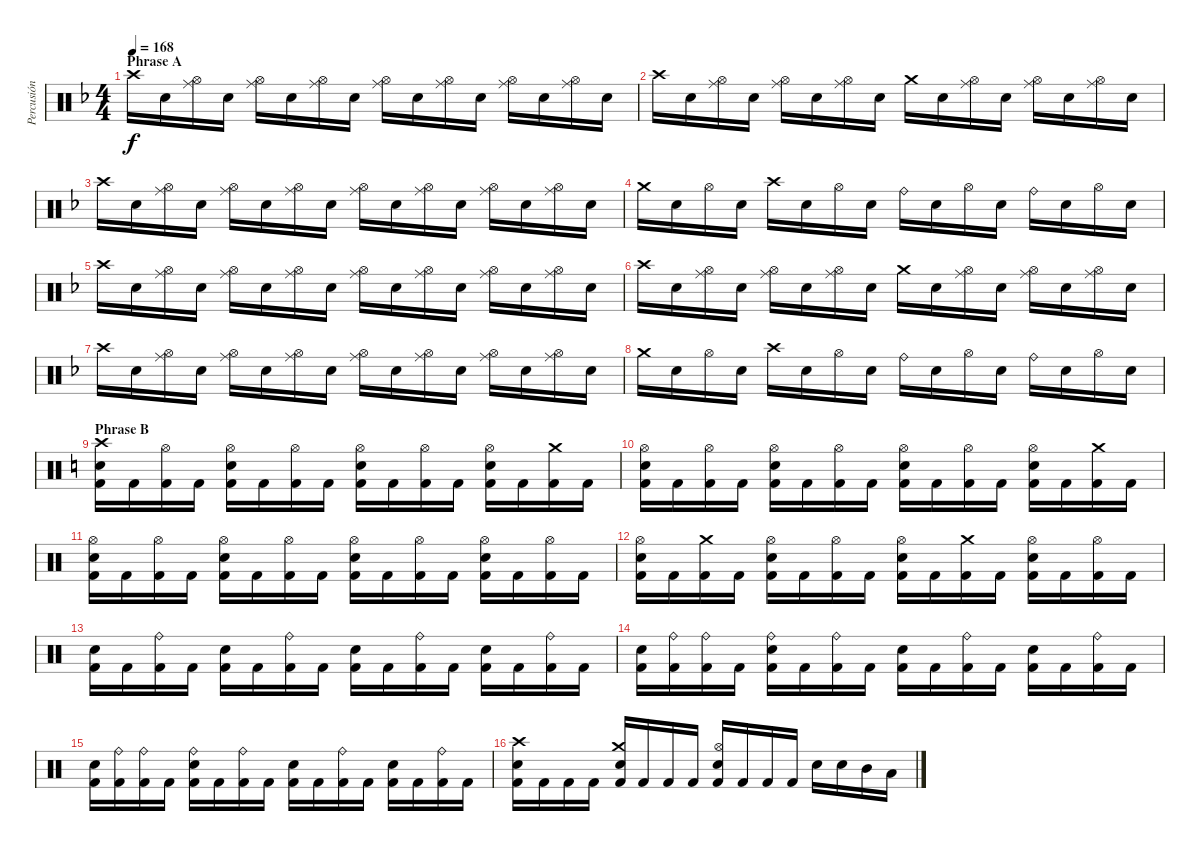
\track ("Percusión" "Percusión") {instrument percussion}
\staff {score}
\articulation defaults
\ts (4 4)
\section ("" "Phrase A")
\tempo 168
\clef neutral
\ks f "Crash high (hit)".16{dy f} "Electric Snare (hit)".16
("Ride (middle)" "Hi-Hat (open)").16 "Electric Snare (hit)".16 ("Ride (middle)" "Hi-Hat (open)").16 "Electric Snare (hit)".16 ("Ride (middle)" "Hi-Hat (open)").16 "Electric Snare (hit)".16 ("Ride (middle)" "Hi-Hat (open)").16 "Electric Snare (hit)".16 ("Ride (middle)" "Hi-Hat (open)").16 "Electric Snare (hit)".16 ("Ride (middle)" "Hi-Hat (open)").16 "Electric Snare (hit)".16 ("Ride (middle)" "Hi-Hat (open)").16 "Electric Snare (hit)".16 |
"Crash high (hit)".16 "Electric Snare (hit)".16 ("Ride (middle)" "Hi-Hat (open)").16 "Electric Snare (hit)".16 ("Ride (middle)" "Hi-Hat (open)").16 "Electric Snare (hit)".16 ("Ride (middle)" "Hi-Hat (open)").16 "Electric Snare (hit)".16 "Crash medium (hit)".16 "Electric Snare (hit)".16 ("Ride (middle)" "Hi-Hat (open)").16 "Electric Snare (hit)".16 ("Ride (middle)" "Hi-Hat (open)").16 "Electric Snare (hit)".16 ("Ride (middle)" "Hi-Hat (open)").16 "Electric Snare (hit)".16 |
"Crash high (hit)".16 "Electric Snare (hit)".16 ("Ride (middle)" "Hi-Hat (open)").16 "Electric Snare (hit)".16 ("Ride (middle)" "Hi-Hat (open)").16 "Electric Snare (hit)".16 ("Ride (middle)" "Hi-Hat (open)").16 "Electric Snare (hit)".16 ("Ride (middle)" "Hi-Hat (open)").16 "Electric Snare (hit)".16 ("Ride (middle)" "Hi-Hat (open)").16 "Electric Snare (hit)".16 ("Ride (middle)" "Hi-Hat (open)").16 "Electric Snare (hit)".16 ("Ride (middle)" "Hi-Hat (open)").16 "Electric Snare (hit)".16 |
"Crash medium (hit)".16 "Electric Snare (hit)".16 "Hi-Hat (open)".16 "Electric Snare (hit)".16 "Crash high (hit)".16 "Electric Snare (hit)".16 "Hi-Hat (open)".16 "Electric Snare (hit)".16 "Ride (bell)".16 "Electric Snare (hit)".16 "Hi-Hat (open)".16 "Electric Snare (hit)".16 "Ride (bell)".16 "Electric Snare (hit)".16 "Hi-Hat (open)".16 "Electric Snare (hit)".16 |
"Crash high (hit)".16 "Electric Snare (hit)".16 ("Ride (middle)" "Hi-Hat (open)").16 "Electric Snare (hit)".16 ("Ride (middle)" "Hi-Hat (open)").16 "Electric Snare (hit)".16 ("Ride (middle)" "Hi-Hat (open)").16 "Electric Snare (hit)".16 ("Ride (middle)" "Hi-Hat (open)").16 "Electric Snare (hit)".16 ("Ride (middle)" "Hi-Hat (open)").16 "Electric Snare (hit)".16 ("Ride (middle)" "Hi-Hat (open)").16 "Electric Snare (hit)".16 ("Ride (middle)" "Hi-Hat (open)").16 "Electric Snare (hit)".16 |
"Crash high (hit)".16 "Electric Snare (hit)".16 ("Ride (middle)" "Hi-Hat (open)").16 "Electric Snare (hit)".16 ("Ride (middle)" "Hi-Hat (open)").16 "Electric Snare (hit)".16 ("Ride (middle)" "Hi-Hat (open)").16 "Electric Snare (hit)".16 "Crash medium (hit)".16 "Electric Snare (hit)".16 ("Ride (middle)" "Hi-Hat (open)").16 "Electric Snare (hit)".16 ("Ride (middle)" "Hi-Hat (open)").16 "Electric Snare (hit)".16 ("Ride (middle)" "Hi-Hat (open)").16 "Electric Snare (hit)".16 |
"Crash high (hit)".16 "Electric Snare (hit)".16 ("Ride (middle)" "Hi-Hat (open)").16 "Electric Snare (hit)".16 ("Ride (middle)" "Hi-Hat (open)").16 "Electric Snare (hit)".16 ("Ride (middle)" "Hi-Hat (open)").16 "Electric Snare (hit)".16 ("Ride (middle)" "Hi-Hat (open)").16 "Electric Snare (hit)".16 ("Ride (middle)" "Hi-Hat (open)").16 "Electric Snare (hit)".16 ("Ride (middle)" "Hi-Hat (open)").16 "Electric Snare (hit)".16 ("Ride (middle)" "Hi-Hat (open)").16 "Electric Snare (hit)".16 |
"Crash medium (hit)".16 "Electric Snare (hit)".16 "Hi-Hat (open)".16 "Electric Snare (hit)".16 "Crash high (hit)".16 "Electric Snare (hit)".16 "Hi-Hat (open)".16 "Electric Snare (hit)".16 "Ride (bell)".16 "Electric Snare (hit)".16 "Hi-Hat (open)".16 "Electric Snare (hit)".16 "Ride (bell)".16 "Electric Snare (hit)".16 "Hi-Hat (open)".16 "Electric Snare (hit)".16 |
\section ("" "Phrase B")
\ks c
("Electric Snare (hit)" "Crash high (hit)" "Kick (hit) 2").16 "Kick (hit) 2".16 ("Hi-Hat (open)" "Kick (hit) 2").16 "Kick (hit) 2".16 ("Electric Snare (hit)" "Hi-Hat (open)" "Kick (hit) 2").16 "Kick (hit) 2".16 ("Hi-Hat (open)" "Kick (hit) 2").16 "Kick (hit) 2".16 ("Electric Snare (hit)" "Hi-Hat (open)" "Kick (hit) 2").16 "Kick (hit) 2".16 ("Hi-Hat (open)" "Kick (hit) 2").16 "Kick (hit) 2".16 ("Electric Snare (hit)" "Hi-Hat (open)" "Kick (hit) 2").16 "Kick (hit) 2".16 ("Crash medium (hit)" "Kick (hit) 2").16 "Kick (hit) 2".16 |
("Electric Snare (hit)" "Hi-Hat (open)" "Kick (hit) 2").16 "Kick (hit) 2".16 ("Hi-Hat (open)" "Kick (hit) 2").16 "Kick (hit) 2".16 ("Electric Snare (hit)" "Hi-Hat (open)" "Kick (hit) 2").16 "Kick (hit) 2".16 ("Hi-Hat (open)" "Kick (hit) 2").16 "Kick (hit) 2".16 ("Electric Snare (hit)" "Hi-Hat (open)" "Kick (hit) 2").16 "Kick (hit) 2".16 ("Hi-Hat (open)" "Kick (hit) 2").16 "Kick (hit) 2".16 ("Electric Snare (hit)" "Hi-Hat (open)" "Kick (hit) 2").16 "Kick (hit) 2".16 ("Crash medium (hit)" "Kick (hit) 2").16 "Kick (hit) 2".16 |
("Electric Snare (hit)" "Hi-Hat (open)" "Kick (hit) 2").16 "Kick (hit) 2".16 ("Hi-Hat (open)" "Kick (hit) 2").16 "Kick (hit) 2".16 ("Electric Snare (hit)" "Hi-Hat (open)" "Kick (hit) 2").16 "Kick (hit) 2".16 ("Hi-Hat (open)" "Kick (hit) 2").16 "Kick (hit) 2".16 ("Electric Snare (hit)" "Hi-Hat (open)" "Kick (hit) 2").16 "Kick (hit) 2".16 ("Hi-Hat (open)" "Kick (hit) 2").16 "Kick (hit) 2".16 ("Electric Snare (hit)" "Hi-Hat (open)" "Kick (hit) 2").16 "Kick (hit) 2".16 ("Hi-Hat (open)" "Kick (hit) 2").16 "Kick (hit) 2".16 |
("Electric Snare (hit)" "Hi-Hat (open)" "Kick (hit) 2").16 "Kick (hit) 2".16 ("Crash medium (hit)" "Kick (hit) 2").16 "Kick (hit) 2".16 ("Electric Snare (hit)" "Hi-Hat (open)" "Kick (hit) 2").16 "Kick (hit) 2".16 ("Hi-Hat (open)" "Kick (hit) 2").16 "Kick (hit) 2".16 ("Electric Snare (hit)" "Hi-Hat (open)" "Kick (hit) 2").16 "Kick (hit) 2".16 ("Crash medium (hit)" "Kick (hit) 2").16 "Kick (hit) 2".16 ("Electric Snare (hit)" "Hi-Hat (open)" "Kick (hit) 2").16 "Kick (hit) 2".16 ("Hi-Hat (open)" "Kick (hit) 2").16 "Kick (hit) 2".16 |
("Electric Snare (hit)" "Kick (hit) 2").16 "Kick (hit) 2".16 ("Ride (bell)" "Kick (hit) 2").16 "Kick (hit) 2".16 ("Electric Snare (hit)" "Kick (hit) 2").16 "Kick (hit) 2".16 ("Ride (bell)" "Kick (hit) 2").16 "Kick (hit) 2".16 ("Electric Snare (hit)" "Kick (hit) 2").16 "Kick (hit) 2".16 ("Ride (bell)" "Kick (hit) 2").16 "Kick (hit) 2".16 ("Electric Snare (hit)" "Kick (hit) 2").16 "Kick (hit) 2".16 ("Ride (bell)" "Kick (hit) 2").16 "Kick (hit) 2".16 |
("Electric Snare (hit)" "Kick (hit) 2").16 ("Ride (bell)" "Kick (hit) 2").16 ("Ride (bell)" "Kick (hit) 2").16 "Kick (hit) 2".16 ("Electric Snare (hit)" "Ride (bell)" "Kick (hit) 2").16 "Kick (hit) 2".16 ("Ride (bell)" "Kick (hit) 2").16 "Kick (hit) 2".16 ("Electric Snare (hit)" "Kick (hit) 2").16 "Kick (hit) 2".16 ("Ride (bell)" "Kick (hit) 2").16 "Kick (hit) 2".16 ("Electric Snare (hit)" "Kick (hit) 2").16 "Kick (hit) 2".16 ("Ride (bell)" "Kick (hit) 2").16 "Kick (hit) 2".16 |
("Electric Snare (hit)" "Kick (hit) 2").16 ("Ride (bell)" "Kick (hit) 2").16 ("Ride (bell)" "Kick (hit) 2").16 "Kick (hit) 2".16 ("Electric Snare (hit)" "Ride (bell)" "Kick (hit) 2").16 "Kick (hit) 2".16 ("Ride (bell)" "Kick (hit) 2").16 "Kick (hit) 2".16 ("Electric Snare (hit)" "Kick (hit) 2").16 "Kick (hit) 2".16 ("Ride (bell)" "Kick (hit) 2").16 "Kick (hit) 2".16 ("Electric Snare (hit)" "Kick (hit) 2").16 "Kick (hit) 2".16 ("Ride (bell)" "Kick (hit) 2").16 "Kick (hit) 2".16 |
("Electric Snare (hit)" "Crash high (hit)" "Kick (hit) 2").16 "Kick (hit) 2".16 "Kick (hit) 2".16 "Kick (hit) 2".16 ("Electric Snare (hit)" "Crash medium (hit)" "Kick (hit) 2").16 "Kick (hit) 2".16 "Kick (hit) 2".16 "Kick (hit) 2".16 ("Electric Snare (hit)" "Hi-Hat (open)" "Kick (hit) 2").16 "Kick (hit) 2".16 "Kick (hit) 2".16 "Kick (hit) 2".16 "Electric Snare (hit)".16 "Electric Snare (hit)".16 "Mid Tom (hit)".16 "Low Tom (hit)".16
